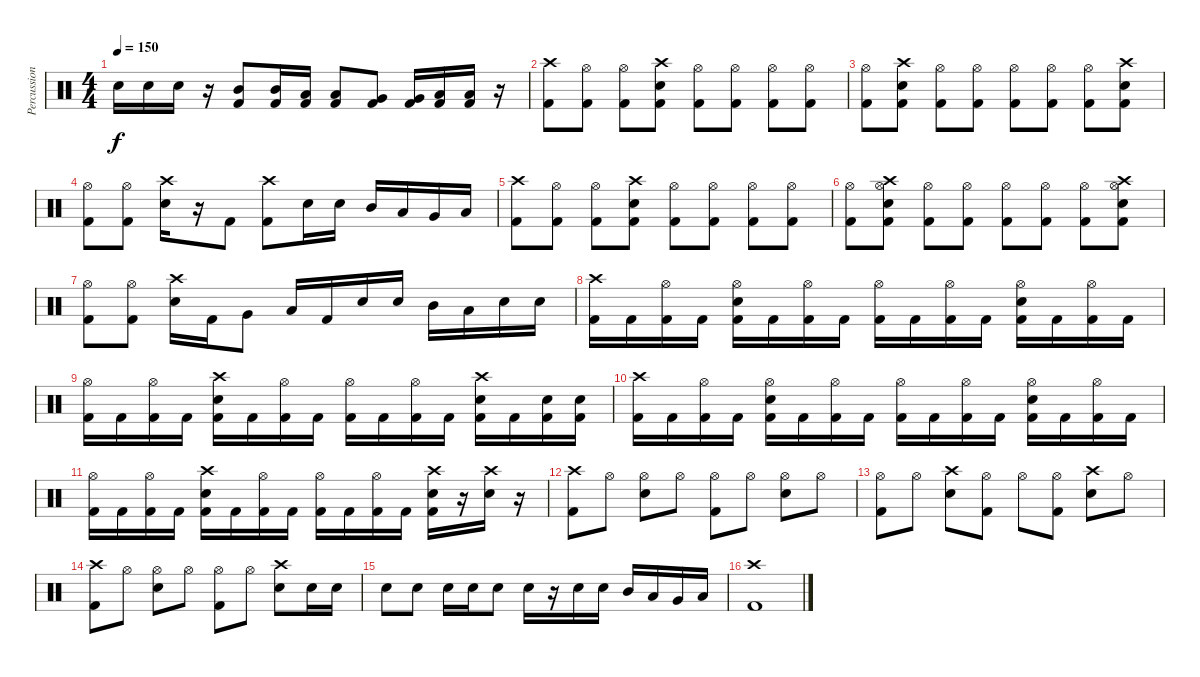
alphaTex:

\track ("Percussion" "Percussion") {instrument percussion}
\staff {score}
\articulation defaults
\ts (4 4)
\tempo 150
\clef neutral
\ks c "Snare (hit) 2".16{dy f} "Snare (hit) 2".16 "Snare (hit) 2".16
r.16 ("Mid Tom (hit)" "Kick (hit) 2").8 ("Mid Tom (hit)" "Kick (hit) 2").16 ("Low Tom (hit)" "Kick (hit) 2").16 ("Low Tom (hit)" "Kick (hit) 2").8 ("Very Low Tom (hit)" "Kick (hit) 2").8 ("Very Low Tom (hit)" "Kick (hit) 2").16 ("Low Floor Tom (hit)" "Kick (hit) 2").16 ("Low Floor Tom (hit)" "Kick (hit) 2").16 r.16 |
("Crash high (hit)" "Kick (hit) 2").8 ("Hi-Hat (open)" "Kick (hit) 2").8 ("Hi-Hat (open)" "Kick (hit) 2").8 ("Crash high (hit)" "Snare (hit) 2" "Kick (hit) 2").8 ("Hi-Hat (open)" "Kick (hit) 2").8 ("Hi-Hat (open)" "Kick (hit) 2").8 ("Hi-Hat (open)" "Kick (hit) 2").8 ("Hi-Hat (open)" "Kick (hit) 2").8 |
("Hi-Hat (open)" "Kick (hit) 2").8 ("Crash high (hit)" "Snare (hit) 2" "Kick (hit) 2").8 ("Hi-Hat (open)" "Kick (hit) 2").8 ("Hi-Hat (open)" "Kick (hit) 2").8 ("Hi-Hat (open)" "Kick (hit) 2").8 ("Hi-Hat (open)" "Kick (hit) 2").8 ("Hi-Hat (open)" "Kick (hit) 2").8 ("Crash high (hit)" "Snare (hit) 2" "Kick (hit) 2").8 |
("Hi-Hat (open)" "Kick (hit) 2").8 ("Hi-Hat (open)" "Kick (hit) 2").8 ("Crash high (hit)" "Snare (hit) 2").16 r.16 "Kick (hit) 2".8 ("Crash high (hit)" "Kick (hit) 2").8 "Snare (hit) 2".16 "Snare (hit) 2".16 "Mid Tom (hit)".16 "Low Tom (hit)".16 "Very Low Tom (hit)".16 "Low Floor Tom (hit)".16 |
("Crash high (hit)" "Kick (hit) 2").8 ("Hi-Hat (open)" "Kick (hit) 2").8 ("Hi-Hat (open)" "Kick (hit) 2").8 ("Crash high (hit)" "Snare (hit) 2" "Kick (hit) 2").8 ("Hi-Hat (open)" "Kick (hit) 2").8 ("Hi-Hat (open)" "Kick (hit) 2").8 ("Hi-Hat (open)" "Kick (hit) 2").8 ("Hi-Hat (open)" "Kick (hit) 2").8 |
("Hi-Hat (open)" "Kick (hit) 2").8 ("Crash high (hit)" "Hi-Hat (open)" "Snare (hit) 2" "Kick (hit) 2").8 ("Hi-Hat (open)" "Kick (hit) 2").8 ("Hi-Hat (open)" "Kick (hit) 2").8 ("Hi-Hat (open)" "Kick (hit) 2").8 ("Hi-Hat (open)" "Kick (hit) 2").8 ("Hi-Hat (open)" "Kick (hit) 2").8 ("Crash high (hit)" "Hi-Hat (open)" "Snare (hit) 2" "Kick (hit) 2").8 |
("Hi-Hat (open)" "Kick (hit) 2").8 ("Hi-Hat (open)" "Kick (hit) 2").8 ("Crash high (hit)" "Snare (hit) 2").16 "Kick (hit) 2".16 "Very Low Tom (hit)".8 "Low Floor Tom (hit)".16 "Kick (hit) 2".16 "Snare (hit) 2".16 "Snare (hit) 2".16 "Mid Tom (hit)".16 "Low Tom (hit)".16 "Snare (hit) 2".16 "Snare (hit) 2".16 |
("Crash high (hit)" "Kick (hit) 2").16 "Kick (hit) 2".16 ("Hi-Hat (open)" "Kick (hit) 2").16 "Kick (hit) 2".16 ("Hi-Hat (open)" "Snare (hit) 2" "Kick (hit) 2").16 "Kick (hit) 2".16 ("Hi-Hat (open)" "Kick (hit) 2").16 "Kick (hit) 2".16 ("Hi-Hat (open)" "Kick (hit) 2").16 "Kick (hit) 2".16 ("Hi-Hat (open)" "Kick (hit) 2").16 "Kick (hit) 2".16 ("Hi-Hat (open)" "Snare (hit) 2" "Kick (hit) 2").16 "Kick (hit) 2".16 ("Hi-Hat (open)" "Kick (hit) 2").16 "Kick (hit) 2".16 |
("Hi-Hat (open)" "Kick (hit) 2").16 "Kick (hit) 2".16 ("Hi-Hat (open)" "Kick (hit) 2").16 "Kick (hit) 2".16 ("Crash high (hit)" "Snare (hit) 2" "Kick (hit) 2").16 "Kick (hit) 2".16 ("Hi-Hat (open)" "Kick (hit) 2").16 "Kick (hit) 2".16 ("Hi-Hat (open)" "Kick (hit) 2").16 "Kick (hit) 2".16 ("Hi-Hat (open)" "Kick (hit) 2").16 "Kick (hit) 2".16 ("Crash high (hit)" "Snare (hit) 2" "Kick (hit) 2").16 "Kick (hit) 2".16 ("Snare (hit) 2" "Kick (hit) 2").16 ("Snare (hit) 2" "Kick (hit) 2").16 |
("Crash high (hit)" "Kick (hit) 2").16 "Kick (hit) 2".16 ("Hi-Hat (open)" "Kick (hit) 2").16 "Kick (hit) 2".16 ("Hi-Hat (open)" "Snare (hit) 2" "Kick (hit) 2").16 "Kick (hit) 2".16 ("Hi-Hat (open)" "Kick (hit) 2").16 "Kick (hit) 2".16 ("Hi-Hat (open)" "Kick (hit) 2").16 "Kick (hit) 2".16 ("Hi-Hat (open)" "Kick (hit) 2").16 "Kick (hit) 2".16 ("Hi-Hat (open)" "Snare (hit) 2" "Kick (hit) 2").16 "Kick (hit) 2".16 ("Hi-Hat (open)" "Kick (hit) 2").16 "Kick (hit) 2".16 |
("Hi-Hat (open)" "Kick (hit) 2").16 "Kick (hit) 2".16 ("Hi-Hat (open)" "Kick (hit) 2").16 "Kick (hit) 2".16 ("Crash high (hit)" "Snare (hit) 2" "Kick (hit) 2").16 "Kick (hit) 2".16 ("Hi-Hat (open)" "Kick (hit) 2").16 "Kick (hit) 2".16 ("Hi-Hat (open)" "Kick (hit) 2").16 "Kick (hit) 2".16 ("Hi-Hat (open)" "Kick (hit) 2").16 "Kick (hit) 2".16 ("Crash high (hit)" "Snare (hit) 2" "Kick (hit) 2").16 r.16 ("Crash high (hit)" "Snare (hit) 2").16 r.16 |
("Crash high (hit)" "Kick (hit) 2").8 "Hi-Hat (open)".8 ("Hi-Hat (open)" "Snare (hit) 2").8 "Hi-Hat (open)".8 ("Hi-Hat (open)" "Kick (hit) 2").8 "Hi-Hat (open)".8 ("Hi-Hat (open)" "Snare (hit) 2").8 "Hi-Hat (open)".8 |
("Hi-Hat (open)" "Kick (hit) 2").8 "Hi-Hat (open)".8 ("Crash high (hit)" "Snare (hit) 2").8 ("Hi-Hat (open)" "Kick (hit) 2").8 "Hi-Hat (open)".8 ("Hi-Hat (open)" "Kick (hit) 2").8 ("Crash high (hit)" "Snare (hit) 2").8 "Hi-Hat (open)".8 |
("Crash high (hit)" "Kick (hit) 2").8 "Hi-Hat (open)".8 ("Hi-Hat (open)" "Snare (hit) 2").8 "Hi-Hat (open)".8 ("Hi-Hat (open)" "Kick (hit) 2").8 "Hi-Hat (open)".8 ("Crash high (hit)" "Snare (hit) 2").8 "Snare (hit) 2".16 "Snare (hit) 2".16 |
"Snare (hit) 2".8 "Snare (hit) 2".8 "Snare (hit) 2".16 "Snare (hit) 2".16 "Snare (hit) 2".8 "Snare (hit) 2".16 r.16 "Snare (hit) 2".16 "Snare (hit) 2".16 "Mid Tom (hit)".16 "Low Tom (hit)".16 "Very Low Tom (hit)".16 "Low Floor Tom (hit)".16 |
("Crash high (hit)" "Kick (hit) 2").1
